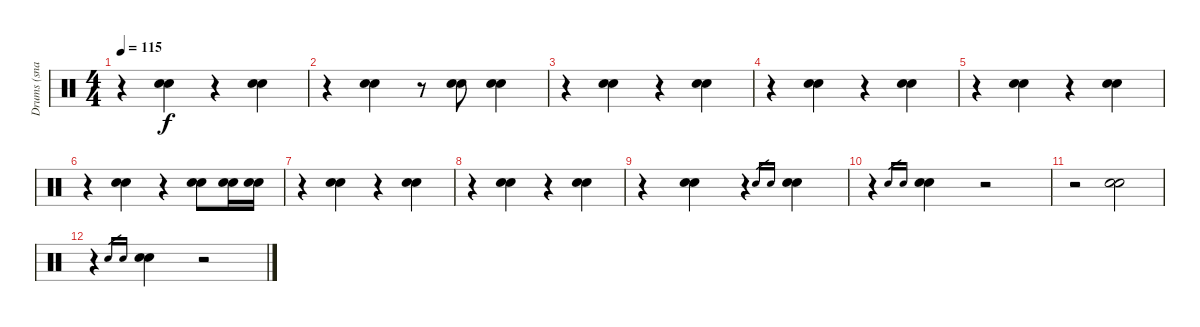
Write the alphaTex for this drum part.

\track ("Drums (snare drum)" "Drums (sna") {instrument percussion}
\staff {score}
\articulation defaults
\ts (4 4)
\tempo 115
\clef neutral
\ks c
r.4{dy f} ("Electric Snare (hit)" "Snare (hit) 2").4 r.4 ("Electric Snare (hit)" "Snare (hit) 2").4 |
r.4 ("Electric Snare (hit)" "Snare (hit) 2").4 r.8 ("Electric Snare (hit)" "Snare (hit) 2").8 ("Electric Snare (hit)" "Snare (hit) 2").4 |
r.4 ("Electric Snare (hit)" "Snare (hit) 2").4 r.4 ("Electric Snare (hit)" "Snare (hit) 2").4 |
r.4 ("Electric Snare (hit)" "Snare (hit) 2").4 r.4 ("Electric Snare (hit)" "Snare (hit) 2").4 |
r.4 ("Electric Snare (hit)" "Snare (hit) 2").4 r.4 ("Electric Snare (hit)" "Snare (hit) 2").4 |
r.4 ("Electric Snare (hit)" "Snare (hit) 2").4 r.4 ("Electric Snare (hit)" "Snare (hit) 2").8 ("Electric Snare (hit)" "Snare (hit) 2").16 ("Electric Snare (hit)" "Snare (hit) 2").16 |
r.4 ("Electric Snare (hit)" "Snare (hit) 2").4 r.4 ("Electric Snare (hit)" "Snare (hit) 2").4 |
r.4 ("Electric Snare (hit)" "Snare (hit) 2").4 r.4 ("Electric Snare (hit)" "Snare (hit) 2").4 |
r.4 ("Electric Snare (hit)" "Snare (hit) 2").4 r.4 "Electric Snare (hit)".16{gr} "Snare (hit) 2".16{gr} ("Electric Snare (hit)" "Snare (hit) 2").4 |
r.4 "Electric Snare (hit)".16{gr} "Snare (hit) 2".16{gr} ("Electric Snare (hit)" "Snare (hit) 2").4 r.2 |
r.2 ("Electric Snare (hit)" "Snare (hit) 2").2 |
r.4 "Electric Snare (hit)".16{gr} "Snare (hit) 2".16{gr} ("Electric Snare (hit)" "Snare (hit) 2").4 r.2
